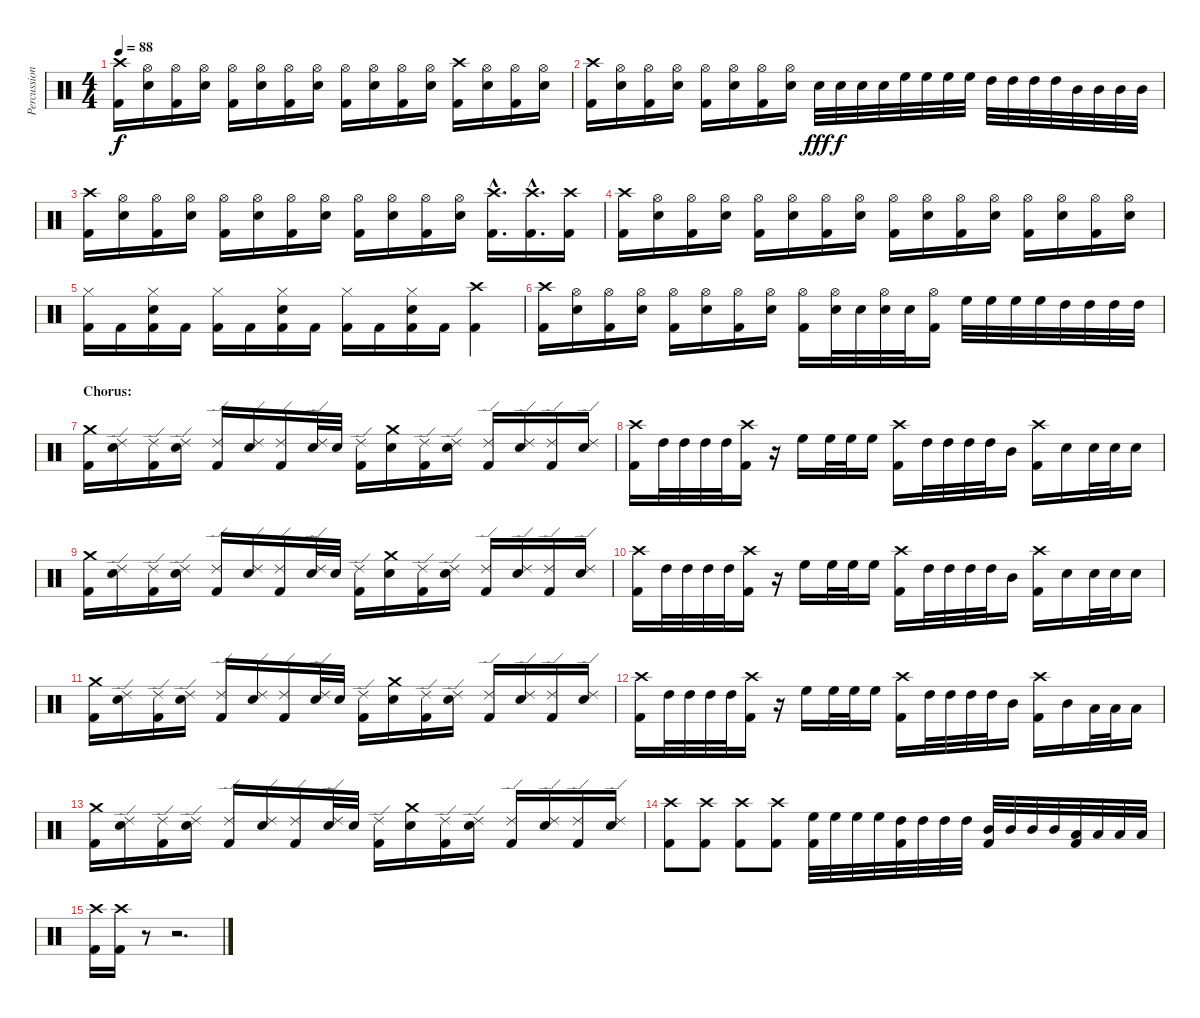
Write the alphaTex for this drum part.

\track ("Percussion" "Percussion") {instrument percussion}
\staff {score}
\articulation defaults
\ts (4 4)
\tempo 88
\clef neutral
\ks c
("Crash high (hit)" "Kick (hit) 2").16{dy f} ("Hi-Hat (open)" "Electric Snare (hit)").16 ("Hi-Hat (open)" "Kick (hit) 2").16 ("Hi-Hat (open)" "Electric Snare (hit)").16 ("Hi-Hat (open)" "Kick (hit) 2").16 ("Hi-Hat (open)" "Electric Snare (hit)").16 ("Hi-Hat (open)" "Kick (hit) 2").16 ("Hi-Hat (open)" "Electric Snare (hit)").16 ("Hi-Hat (open)" "Kick (hit) 2").16 ("Hi-Hat (open)" "Electric Snare (hit)").16 ("Hi-Hat (open)" "Kick (hit) 2").16 ("Hi-Hat (open)" "Electric Snare (hit)").16 ("Crash high (hit)" "Kick (hit) 2").16 ("Hi-Hat (open)" "Electric Snare (hit)").16 ("Hi-Hat (open)" "Kick (hit) 2").16 ("Hi-Hat (open)" "Electric Snare (hit)").16 |
("Crash high (hit)" "Kick (hit) 2").16 ("Hi-Hat (open)" "Electric Snare (hit)").16 ("Hi-Hat (open)" "Kick (hit) 2").16 ("Hi-Hat (open)" "Electric Snare (hit)").16 ("Hi-Hat (open)" "Kick (hit) 2").16 ("Hi-Hat (open)" "Electric Snare (hit)").16 ("Hi-Hat (open)" "Kick (hit) 2").16 ("Hi-Hat (open)" "Electric Snare (hit)").16 "Electric Snare (hit)".32{dy fff} "Electric Snare (hit)".32{dy f} "Electric Snare (hit)".32 "Electric Snare (hit)".32 "High Floor Tom (hit)".32 "High Floor Tom (hit)".32 "High Floor Tom (hit)".32 "High Floor Tom (hit)".32 "High Tom (hit)".32 "High Tom (hit)".32 "High Tom (hit)".32 "High Tom (hit)".32 "Mid Tom (hit)".32 "Mid Tom (hit)".32 "Mid Tom (hit)".32 "Mid Tom (hit)".32 |
("Crash high (hit)" "Kick (hit) 2").16 ("Hi-Hat (open)" "Electric Snare (hit)").16 ("Hi-Hat (open)" "Kick (hit) 2").16 ("Hi-Hat (open)" "Electric Snare (hit)").16 ("Hi-Hat (open)" "Kick (hit) 2").16 ("Hi-Hat (open)" "Electric Snare (hit)").16 ("Hi-Hat (open)" "Kick (hit) 2").16 ("Hi-Hat (open)" "Electric Snare (hit)").16 ("Hi-Hat (open)" "Kick (hit) 2").16 ("Hi-Hat (open)" "Electric Snare (hit)").16 ("Hi-Hat (open)" "Kick (hit) 2").16 ("Hi-Hat (open)" "Electric Snare (hit)").16 ("Crash high (hit)"{hac} "Kick (hit) 2"{hac}).16{d} ("Crash high (hit)"{hac} "Kick (hit) 2"{hac}).16{d} ("Crash high (hit)" "Kick (hit) 2").16 |
("Crash high (hit)" "Kick (hit) 2").16 ("Hi-Hat (open)" "Electric Snare (hit)").16 ("Hi-Hat (open)" "Kick (hit) 2").16 ("Hi-Hat (open)" "Electric Snare (hit)").16 ("Hi-Hat (open)" "Kick (hit) 2").16 ("Hi-Hat (open)" "Electric Snare (hit)").16 ("Hi-Hat (open)" "Kick (hit) 2").16 ("Hi-Hat (open)" "Electric Snare (hit)").16 ("Hi-Hat (open)" "Kick (hit) 2").16 ("Hi-Hat (open)" "Electric Snare (hit)").16 ("Hi-Hat (open)" "Kick (hit) 2").16 ("Hi-Hat (open)" "Electric Snare (hit)").16 ("Hi-Hat (open)" "Kick (hit) 2").16 ("Hi-Hat (open)" "Electric Snare (hit)").16 ("Hi-Hat (open)" "Kick (hit) 2").16 ("Hi-Hat (open)" "Electric Snare (hit)").16 |
("Hi-Hat (closed)" "Kick (hit) 2").16 "Kick (hit) 2".16 ("Hi-Hat (closed)" "Electric Snare (hit)" "Kick (hit) 2").16 "Kick (hit) 2".16 ("Hi-Hat (closed)" "Kick (hit) 2").16 "Kick (hit) 2".16 ("Hi-Hat (closed)" "Electric Snare (hit)" "Kick (hit) 2").16 "Kick (hit) 2".16 ("Hi-Hat (closed)" "Kick (hit) 2").16 "Kick (hit) 2".16 ("Hi-Hat (closed)" "Electric Snare (hit)" "Kick (hit) 2").16 "Kick (hit) 2".16 ("Crash high (hit)" "Kick (hit) 2").4 |
("Crash high (hit)" "Kick (hit) 2").16 ("Hi-Hat (open)" "Electric Snare (hit)").16 ("Hi-Hat (open)" "Kick (hit) 2").16 ("Hi-Hat (open)" "Electric Snare (hit)").16 ("Hi-Hat (open)" "Kick (hit) 2").16 ("Hi-Hat (open)" "Electric Snare (hit)").16 ("Hi-Hat (open)" "Kick (hit) 2").16 ("Hi-Hat (open)" "Electric Snare (hit)").16 ("Hi-Hat (open)" "Kick (hit) 2").16 ("Hi-Hat (open)" "Electric Snare (hit)").32 "Electric Snare (hit)".32 ("Hi-Hat (open)" "Electric Snare (hit)").32 "Electric Snare (hit)".32 ("Hi-Hat (open)" "Kick (hit) 2").16 "High Floor Tom (hit)".32 "High Floor Tom (hit)".32 "High Floor Tom (hit)".32 "High Floor Tom (hit)".32 "High Tom (hit)".32 "High Tom (hit)".32 "High Tom (hit)".32 "High Tom (hit)".32 |
\section ("" "Chorus:")
("Crash medium (hit)" "Kick (hit) 2").16 ("Ride (edge) 2" "Electric Snare (hit)").16 ("Ride (edge) 2" "Kick (hit) 2").16 ("Ride (edge) 2" "Electric Snare (hit)").16 ("Ride (edge) 2" "Kick (hit) 2").16 ("Ride (edge) 2" "Electric Snare (hit)").16 ("Ride (edge) 2" "Kick (hit) 2").16 ("Ride (edge) 2" "Electric Snare (hit)").32 "Electric Snare (hit)".32 ("Ride (edge) 2" "Kick (hit) 2").16 ("Crash medium (hit)" "Electric Snare (hit)").16 ("Ride (edge) 2" "Kick (hit) 2").16 ("Ride (edge) 2" "Electric Snare (hit)").16 ("Ride (edge) 2" "Kick (hit) 2").16 ("Ride (edge) 2" "Electric Snare (hit)").16 ("Ride (edge) 2" "Kick (hit) 2").16 ("Ride (edge) 2" "Electric Snare (hit)").16 |
("Crash high (hit)" "Kick (hit) 2").16 "High Tom (hit)".32 "High Tom (hit)".32 "High Tom (hit)".32 "High Tom (hit)".32 ("Crash high (hit)" "Kick (hit) 2").16 r.16 "High Floor Tom (hit)".16 "High Floor Tom (hit)".32 "High Floor Tom (hit)".32 "High Floor Tom (hit)".16 ("Crash high (hit)" "Kick (hit) 2").16 "High Tom (hit)".32 "High Tom (hit)".32 "High Tom (hit)".32 "High Tom (hit)".32 "Mid Tom (hit)".16 ("Crash high (hit)" "Kick (hit) 2").16 "Electric Snare (hit)".16 "Electric Snare (hit)".32 "Electric Snare (hit)".32 "Electric Snare (hit)".16 |
("Crash medium (hit)" "Kick (hit) 2").16 ("Ride (edge) 2" "Electric Snare (hit)").16 ("Ride (edge) 2" "Kick (hit) 2").16 ("Ride (edge) 2" "Electric Snare (hit)").16 ("Ride (edge) 2" "Kick (hit) 2").16 ("Ride (edge) 2" "Electric Snare (hit)").16 ("Ride (edge) 2" "Kick (hit) 2").16 ("Ride (edge) 2" "Electric Snare (hit)").32 "Electric Snare (hit)".32 ("Ride (edge) 2" "Kick (hit) 2").16 ("Crash medium (hit)" "Electric Snare (hit)").16 ("Ride (edge) 2" "Kick (hit) 2").16 ("Ride (edge) 2" "Electric Snare (hit)").16 ("Ride (edge) 2" "Kick (hit) 2").16 ("Ride (edge) 2" "Electric Snare (hit)").16 ("Ride (edge) 2" "Kick (hit) 2").16 ("Ride (edge) 2" "Electric Snare (hit)").16 |
("Crash high (hit)" "Kick (hit) 2").16 "High Tom (hit)".32 "High Tom (hit)".32 "High Tom (hit)".32 "High Tom (hit)".32 ("Crash high (hit)" "Kick (hit) 2").16 r.16 "High Floor Tom (hit)".16 "High Floor Tom (hit)".32 "High Floor Tom (hit)".32 "High Floor Tom (hit)".16 ("Crash high (hit)" "Kick (hit) 2").16 "High Tom (hit)".32 "High Tom (hit)".32 "High Tom (hit)".32 "High Tom (hit)".32 "Mid Tom (hit)".16 ("Crash high (hit)" "Kick (hit) 2").16 "Electric Snare (hit)".16 "Electric Snare (hit)".32 "Electric Snare (hit)".32 "Electric Snare (hit)".16 |
("Crash medium (hit)" "Kick (hit) 2").16 ("Ride (edge) 2" "Electric Snare (hit)").16 ("Ride (edge) 2" "Kick (hit) 2").16 ("Ride (edge) 2" "Electric Snare (hit)").16 ("Ride (edge) 2" "Kick (hit) 2").16 ("Ride (edge) 2" "Electric Snare (hit)").16 ("Ride (edge) 2" "Kick (hit) 2").16 ("Ride (edge) 2" "Electric Snare (hit)").32 "Electric Snare (hit)".32 ("Ride (edge) 2" "Kick (hit) 2").16 ("Crash medium (hit)" "Electric Snare (hit)").16 ("Ride (edge) 2" "Kick (hit) 2").16 ("Ride (edge) 2" "Electric Snare (hit)").16 ("Ride (edge) 2" "Kick (hit) 2").16 ("Ride (edge) 2" "Electric Snare (hit)").16 ("Ride (edge) 2" "Kick (hit) 2").16 ("Ride (edge) 2" "Electric Snare (hit)").16 |
("Crash high (hit)" "Kick (hit) 2").16 "High Tom (hit)".32 "High Tom (hit)".32 "High Tom (hit)".32 "High Tom (hit)".32 ("Crash high (hit)" "Kick (hit) 2").16 r.16 "High Floor Tom (hit)".16 "High Floor Tom (hit)".32 "High Floor Tom (hit)".32 "High Floor Tom (hit)".16 ("Crash high (hit)" "Kick (hit) 2").16 "High Tom (hit)".32 "High Tom (hit)".32 "High Tom (hit)".32 "High Tom (hit)".32 "Mid Tom (hit)".16 ("Crash high (hit)" "Kick (hit) 2").16 "Mid Tom (hit)".16 "Low Tom (hit)".32 "Low Tom (hit)".32 "Low Tom (hit)".16 |
("Crash medium (hit)" "Kick (hit) 2").16 ("Ride (edge) 2" "Electric Snare (hit)").16 ("Ride (edge) 2" "Kick (hit) 2").16 ("Ride (edge) 2" "Electric Snare (hit)").16 ("Ride (edge) 2" "Kick (hit) 2").16 ("Ride (edge) 2" "Electric Snare (hit)").16 ("Ride (edge) 2" "Kick (hit) 2").16 ("Ride (edge) 2" "Electric Snare (hit)").32 "Electric Snare (hit)".32 ("Ride (edge) 2" "Kick (hit) 2").16 ("Crash medium (hit)" "Electric Snare (hit)").16 ("Ride (edge) 2" "Kick (hit) 2").16 ("Ride (edge) 2" "Electric Snare (hit)").16 ("Ride (edge) 2" "Kick (hit) 2").16 ("Ride (edge) 2" "Electric Snare (hit)").16 ("Ride (edge) 2" "Kick (hit) 2").16 ("Ride (edge) 2" "Electric Snare (hit)").16 |
("Crash high (hit)" "Kick (hit) 2").8 ("Crash high (hit)" "Kick (hit) 2").8 ("Crash high (hit)" "Kick (hit) 2").8 ("Crash high (hit)" "Kick (hit) 2").8 ("High Floor Tom (hit)" "Kick (hit) 2").32 "High Floor Tom (hit)".32 "High Floor Tom (hit)".32 "High Floor Tom (hit)".32 ("High Tom (hit)" "Kick (hit) 2").32 "High Tom (hit)".32 "High Tom (hit)".32 "High Tom (hit)".32 ("Mid Tom (hit)" "Kick (hit) 2").32 "Mid Tom (hit)".32 "Mid Tom (hit)".32 "Mid Tom (hit)".32 ("Low Tom (hit)" "Kick (hit) 2").32 "Low Tom (hit)".32 "Low Tom (hit)".32 "Low Tom (hit)".32 |
("Crash high (hit)" "Kick (hit) 2").16 ("Crash high (hit)" "Kick (hit) 2").16 r.8 r.2{d}
